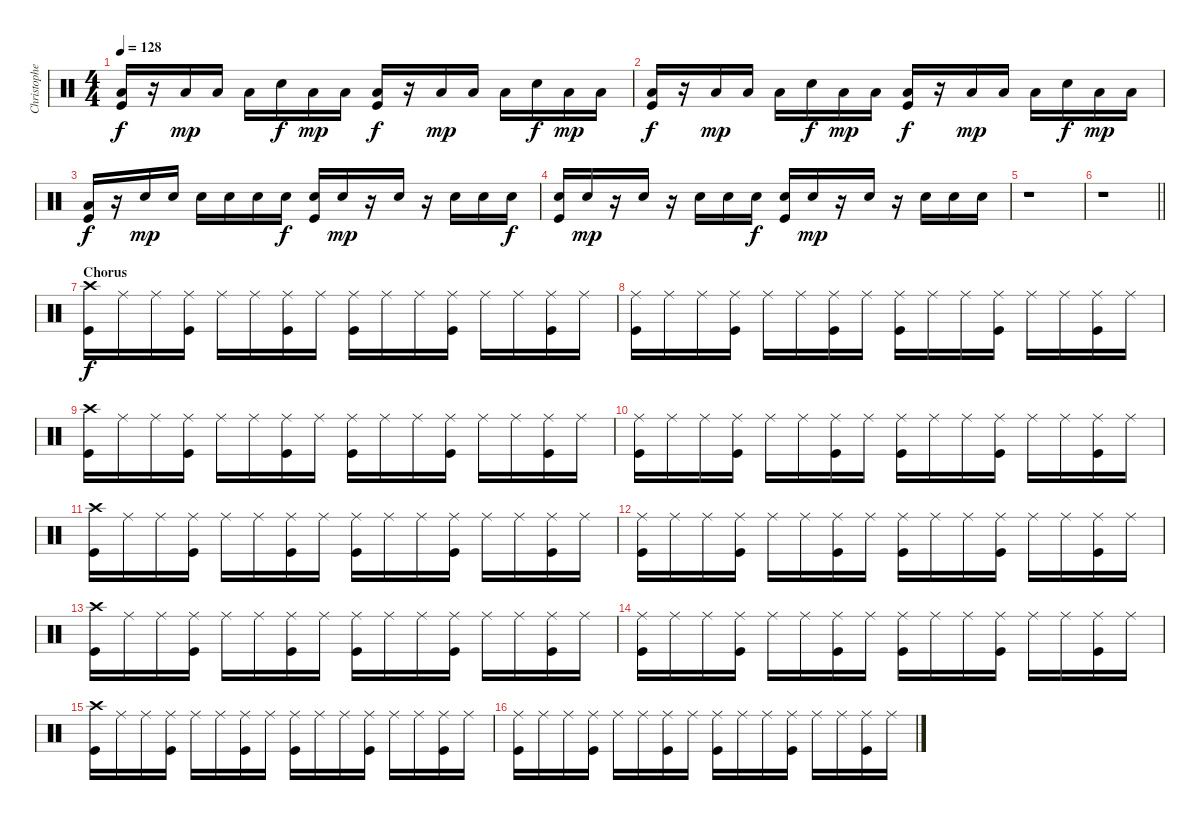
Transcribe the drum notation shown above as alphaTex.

\track ("Christopher - Drums" "Christophe") {instrument percussion}
\staff {score}
\articulation defaults
\ts (4 4)
\tempo 128
\clef neutral
\ks c
("Low Floor Tom (hit)" "Kick (hit)").16{dy f} r.16 "Low Tom (hit)".16{dy mp} "Low Tom (hit)".16 "Low Tom (hit)".16 "Snare (hit) 2".16{dy f} "Low Tom (hit)".16{dy mp} "Low Tom (hit)".16 ("Low Floor Tom (hit)" "Kick (hit)").16{dy f} r.16 "Low Tom (hit)".16{dy mp} "Low Tom (hit)".16 "Low Tom (hit)".16 "Snare (hit) 2".16{dy f} "Low Tom (hit)".16{dy mp} "Low Tom (hit)".16 |
("Low Floor Tom (hit)" "Kick (hit)").16{dy f} r.16 "Low Tom (hit)".16{dy mp} "Low Tom (hit)".16 "Low Tom (hit)".16 "Snare (hit) 2".16{dy f} "Low Tom (hit)".16{dy mp} "Low Tom (hit)".16 ("Low Floor Tom (hit)" "Kick (hit)").16{dy f} r.16 "Low Tom (hit)".16{dy mp} "Low Tom (hit)".16 "Low Tom (hit)".16 "Snare (hit) 2".16{dy f} "Low Tom (hit)".16{dy mp} "Low Tom (hit)".16 |
("Low Floor Tom (hit)" "Kick (hit)").16{dy f} r.16 "Snare (hit) 2".16{dy mp} "Snare (hit) 2".16 "Snare (hit) 2".16 "Snare (hit) 2".16 "Snare (hit) 2".16 "Snare (hit) 2".16{dy f} ("Snare (hit) 2" "Kick (hit)").16 "Snare (hit) 2".16{dy mp} r.16 "Snare (hit) 2".16 r.16 "Snare (hit) 2".16 "Snare (hit) 2".16 "Snare (hit) 2".16{dy f} |
("Snare (hit) 2" "Kick (hit)").16 "Snare (hit) 2".16{dy mp} r.16 "Snare (hit) 2".16 r.16 "Snare (hit) 2".16 "Snare (hit) 2".16 "Snare (hit) 2".16{dy f} ("Snare (hit) 2" "Kick (hit)").16 "Snare (hit) 2".16{dy mp} r.16 "Snare (hit) 2".16 r.16 "Snare (hit) 2".16 "Snare (hit) 2".16 "Snare (hit) 2".16 |
r.1 |
\barLineRight lightlight
r.1 |
\section ("" "Chorus")
("Crash high (hit)" "Kick (hit)").16{dy f} "Ride (middle)".16 "Ride (middle)".16 ("Ride (middle)" "Kick (hit)").16 "Ride (middle)".16 "Ride (middle)".16 ("Ride (middle)" "Kick (hit)").16 "Ride (middle)".16 ("Ride (middle)" "Kick (hit)").16 "Ride (middle)".16 "Ride (middle)".16 ("Ride (middle)" "Kick (hit)").16 "Ride (middle)".16 "Ride (middle)".16 ("Ride (middle)" "Kick (hit)").16 "Ride (middle)".16 |
("Ride (middle)" "Kick (hit)").16 "Ride (middle)".16 "Ride (middle)".16 ("Ride (middle)" "Kick (hit)").16 "Ride (middle)".16 "Ride (middle)".16 ("Ride (middle)" "Kick (hit)").16 "Ride (middle)".16 ("Ride (middle)" "Kick (hit)").16 "Ride (middle)".16 "Ride (middle)".16 ("Ride (middle)" "Kick (hit)").16 "Ride (middle)".16 "Ride (middle)".16 ("Ride (middle)" "Kick (hit)").16 "Ride (middle)".16 |
("Crash high (hit)" "Kick (hit)").16 "Ride (middle)".16 "Ride (middle)".16 ("Ride (middle)" "Kick (hit)").16 "Ride (middle)".16 "Ride (middle)".16 ("Ride (middle)" "Kick (hit)").16 "Ride (middle)".16 ("Ride (middle)" "Kick (hit)").16 "Ride (middle)".16 "Ride (middle)".16 ("Ride (middle)" "Kick (hit)").16 "Ride (middle)".16 "Ride (middle)".16 ("Ride (middle)" "Kick (hit)").16 "Ride (middle)".16 |
("Ride (middle)" "Kick (hit)").16 "Ride (middle)".16 "Ride (middle)".16 ("Ride (middle)" "Kick (hit)").16 "Ride (middle)".16 "Ride (middle)".16 ("Ride (middle)" "Kick (hit)").16 "Ride (middle)".16 ("Ride (middle)" "Kick (hit)").16 "Ride (middle)".16 "Ride (middle)".16 ("Ride (middle)" "Kick (hit)").16 "Ride (middle)".16 "Ride (middle)".16 ("Ride (middle)" "Kick (hit)").16 "Ride (middle)".16 |
("Crash high (hit)" "Kick (hit)").16 "Ride (middle)".16 "Ride (middle)".16 ("Ride (middle)" "Kick (hit)").16 "Ride (middle)".16 "Ride (middle)".16 ("Ride (middle)" "Kick (hit)").16 "Ride (middle)".16 ("Ride (middle)" "Kick (hit)").16 "Ride (middle)".16 "Ride (middle)".16 ("Ride (middle)" "Kick (hit)").16 "Ride (middle)".16 "Ride (middle)".16 ("Ride (middle)" "Kick (hit)").16 "Ride (middle)".16 |
("Ride (middle)" "Kick (hit)").16 "Ride (middle)".16 "Ride (middle)".16 ("Ride (middle)" "Kick (hit)").16 "Ride (middle)".16 "Ride (middle)".16 ("Ride (middle)" "Kick (hit)").16 "Ride (middle)".16 ("Ride (middle)" "Kick (hit)").16 "Ride (middle)".16 "Ride (middle)".16 ("Ride (middle)" "Kick (hit)").16 "Ride (middle)".16 "Ride (middle)".16 ("Ride (middle)" "Kick (hit)").16 "Ride (middle)".16 |
("Crash high (hit)" "Kick (hit)").16 "Ride (middle)".16 "Ride (middle)".16 ("Ride (middle)" "Kick (hit)").16 "Ride (middle)".16 "Ride (middle)".16 ("Ride (middle)" "Kick (hit)").16 "Ride (middle)".16 ("Ride (middle)" "Kick (hit)").16 "Ride (middle)".16 "Ride (middle)".16 ("Ride (middle)" "Kick (hit)").16 "Ride (middle)".16 "Ride (middle)".16 ("Ride (middle)" "Kick (hit)").16 "Ride (middle)".16 |
("Ride (middle)" "Kick (hit)").16 "Ride (middle)".16 "Ride (middle)".16 ("Ride (middle)" "Kick (hit)").16 "Ride (middle)".16 "Ride (middle)".16 ("Ride (middle)" "Kick (hit)").16 "Ride (middle)".16 ("Ride (middle)" "Kick (hit)").16 "Ride (middle)".16 "Ride (middle)".16 ("Ride (middle)" "Kick (hit)").16 "Ride (middle)".16 "Ride (middle)".16 ("Ride (middle)" "Kick (hit)").16 "Ride (middle)".16 |
("Crash high (hit)" "Kick (hit)").16 "Ride (middle)".16 "Ride (middle)".16 ("Ride (middle)" "Kick (hit)").16 "Ride (middle)".16 "Ride (middle)".16 ("Ride (middle)" "Kick (hit)").16 "Ride (middle)".16 ("Ride (middle)" "Kick (hit)").16 "Ride (middle)".16 "Ride (middle)".16 ("Ride (middle)" "Kick (hit)").16 "Ride (middle)".16 "Ride (middle)".16 ("Ride (middle)" "Kick (hit)").16 "Ride (middle)".16 |
("Ride (middle)" "Kick (hit)").16 "Ride (middle)".16 "Ride (middle)".16 ("Ride (middle)" "Kick (hit)").16 "Ride (middle)".16 "Ride (middle)".16 ("Ride (middle)" "Kick (hit)").16 "Ride (middle)".16 ("Ride (middle)" "Kick (hit)").16 "Ride (middle)".16 "Ride (middle)".16 ("Ride (middle)" "Kick (hit)").16 "Ride (middle)".16 "Ride (middle)".16 ("Ride (middle)" "Kick (hit)").16 "Ride (middle)".16
